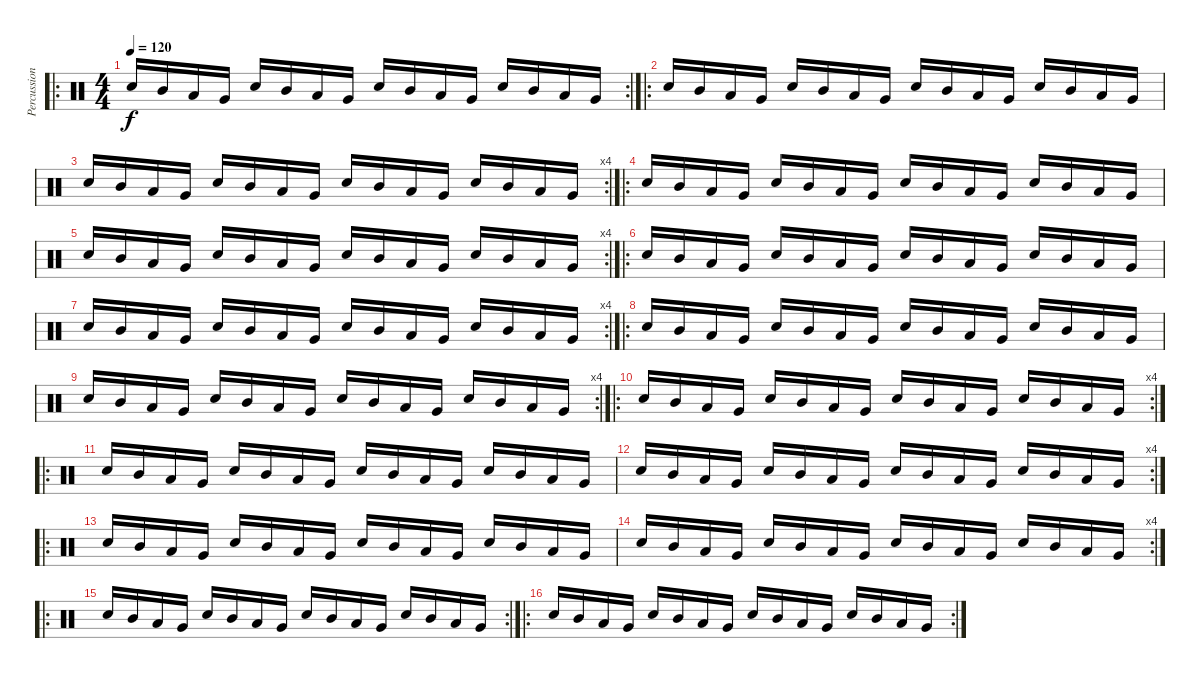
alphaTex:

\track ("Percussion" "Percussion") {instrument percussion}
\staff {score}
\articulation defaults
\ro
\rc 2
\ts (4 4)
\tempo 120
\tempo 130
\tempo 120
\clef neutral
\ks c "Snare (hit)"{x}.16{dy f volume 8} "Mid Tom (hit)".16 "Low Tom (hit)".16 "Very Low Tom (hit)".16 "Snare (hit)"{x}.16 "Mid Tom (hit)".16 "Low Tom (hit)".16 "Very Low Tom (hit)".16 "Snare (hit)"{x}.16 "Mid Tom (hit)".16 "Low Tom (hit)".16 "Very Low Tom (hit)".16 "Snare (hit)"{x}.16 "Mid Tom (hit)".16 "Low Tom (hit)".16 "Very Low Tom (hit)".16
|
\ro "Snare (hit) 2".16{volume 13} "Mid Tom (hit)".16 "Low Tom (hit)".16 "Very Low Tom (hit)".16 "Snare (hit) 2".16 "Mid Tom (hit)".16 "Low Tom (hit)".16 "Very Low Tom (hit)".16 "Snare (hit) 2".16 "Mid Tom (hit)".16 "Low Tom (hit)".16 "Very Low Tom (hit)".16 "Snare (hit) 2".16 "Mid Tom (hit)".16 "Low Tom (hit)".16 "Very Low Tom (hit)".16
|
\rc 4 "Snare (hit) 2".16 "Mid Tom (hit)".16 "Low Tom (hit)".16 "Very Low Tom (hit)".16 "Snare (hit) 2".16 "Mid Tom (hit)".16 "Low Tom (hit)".16 "Very Low Tom (hit)".16 "Snare (hit) 2".16 "Mid Tom (hit)".16 "Low Tom (hit)".16 "Very Low Tom (hit)".16 "Snare (hit) 2".16 "Mid Tom (hit)".16 "Low Tom (hit)".16 "Very Low Tom (hit)".16
|
\ro "Snare (hit)"{x}.16{volume 8} "Mid Tom (hit)".16 "Low Tom (hit)".16 "Very Low Tom (hit)".16 "Snare (hit)"{x}.16 "Mid Tom (hit)".16 "Low Tom (hit)".16 "Very Low Tom (hit)".16 "Snare (hit)"{x}.16 "Mid Tom (hit)".16 "Low Tom (hit)".16 "Very Low Tom (hit)".16 "Snare (hit)"{x}.16 "Mid Tom (hit)".16 "Low Tom (hit)".16 "Very Low Tom (hit)".16
|
\rc 4 "Snare (hit)"{x}.16 "Mid Tom (hit)".16 "Low Tom (hit)".16 "Very Low Tom (hit)".16 "Snare (hit)"{x}.16 "Mid Tom (hit)".16 "Low Tom (hit)".16 "Very Low Tom (hit)".16 "Snare (hit)"{x}.16 "Mid Tom (hit)".16 "Low Tom (hit)".16 "Very Low Tom (hit)".16 "Snare (hit)"{x}.16 "Mid Tom (hit)".16 "Low Tom (hit)".16 "Very Low Tom (hit)".16
|
\ro "Snare (hit) 2".16{volume 13} "Mid Tom (hit)".16 "Low Tom (hit)".16 "Very Low Tom (hit)".16 "Snare (hit) 2".16 "Mid Tom (hit)".16 "Low Tom (hit)".16 "Very Low Tom (hit)".16 "Snare (hit) 2".16 "Mid Tom (hit)".16 "Low Tom (hit)".16 "Very Low Tom (hit)".16 "Snare (hit) 2".16 "Mid Tom (hit)".16 "Low Tom (hit)".16 "Very Low Tom (hit)".16
|
\rc 4 "Snare (hit) 2".16 "Mid Tom (hit)".16 "Low Tom (hit)".16 "Very Low Tom (hit)".16 "Snare (hit) 2".16 "Mid Tom (hit)".16 "Low Tom (hit)".16 "Very Low Tom (hit)".16 "Snare (hit) 2".16 "Mid Tom (hit)".16 "Low Tom (hit)".16 "Very Low Tom (hit)".16 "Snare (hit) 2".16 "Mid Tom (hit)".16 "Low Tom (hit)".16 "Very Low Tom (hit)".16
|
\ro "Snare (hit)"{x}.16{volume 8} "Mid Tom (hit)".16 "Low Tom (hit)".16 "Very Low Tom (hit)".16 "Snare (hit)"{x}.16 "Mid Tom (hit)".16 "Low Tom (hit)".16 "Very Low Tom (hit)".16 "Snare (hit)"{x}.16 "Mid Tom (hit)".16 "Low Tom (hit)".16 "Very Low Tom (hit)".16 "Snare (hit)"{x}.16 "Mid Tom (hit)".16 "Low Tom (hit)".16 "Very Low Tom (hit)".16
|
\rc 4 "Snare (hit)"{x}.16{volume 8} "Mid Tom (hit)".16 "Low Tom (hit)".16 "Very Low Tom (hit)".16 "Snare (hit)"{x}.16 "Mid Tom (hit)".16 "Low Tom (hit)".16 "Very Low Tom (hit)".16 "Snare (hit)"{x}.16 "Mid Tom (hit)".16 "Low Tom (hit)".16 "Very Low Tom (hit)".16 "Snare (hit)"{x}.16 "Mid Tom (hit)".16 "Low Tom (hit)".16 "Very Low Tom (hit)".16
|
\ro
\rc 4 "Snare (hit)"{x}.16 "Mid Tom (hit)".16 "Low Tom (hit)".16 "Very Low Tom (hit)".16 "Snare (hit)"{x}.16 "Mid Tom (hit)".16 "Low Tom (hit)".16 "Very Low Tom (hit)".16 "Snare (hit)"{x}.16 "Mid Tom (hit)".16 "Low Tom (hit)".16 "Very Low Tom (hit)".16 "Snare (hit)"{x}.16 "Mid Tom (hit)".16 "Low Tom (hit)".16 "Very Low Tom (hit)".16
|
\ro "Snare (hit) 2".16{volume 13} "Mid Tom (hit)".16 "Low Tom (hit)".16 "Very Low Tom (hit)".16 "Snare (hit) 2".16 "Mid Tom (hit)".16 "Low Tom (hit)".16 "Very Low Tom (hit)".16 "Snare (hit) 2".16 "Mid Tom (hit)".16 "Low Tom (hit)".16 "Very Low Tom (hit)".16 "Snare (hit) 2".16 "Mid Tom (hit)".16 "Low Tom (hit)".16 "Very Low Tom (hit)".16
|
\rc 4 "Snare (hit) 2".16 "Mid Tom (hit)".16 "Low Tom (hit)".16 "Very Low Tom (hit)".16 "Snare (hit) 2".16 "Mid Tom (hit)".16 "Low Tom (hit)".16 "Very Low Tom (hit)".16 "Snare (hit) 2".16 "Mid Tom (hit)".16 "Low Tom (hit)".16 "Very Low Tom (hit)".16 "Snare (hit) 2".16 "Mid Tom (hit)".16 "Low Tom (hit)".16 "Very Low Tom (hit)".16
|
\ro "Snare (hit)"{x}.16{volume 8} "Mid Tom (hit)".16 "Low Tom (hit)".16 "Very Low Tom (hit)".16 "Snare (hit)"{x}.16 "Mid Tom (hit)".16 "Low Tom (hit)".16 "Very Low Tom (hit)".16 "Snare (hit)"{x}.16 "Mid Tom (hit)".16 "Low Tom (hit)".16 "Very Low Tom (hit)".16 "Snare (hit)"{x}.16 "Mid Tom (hit)".16 "Low Tom (hit)".16 "Very Low Tom (hit)".16
|
\rc 4 "Snare (hit)"{x}.16{volume 8} "Mid Tom (hit)".16 "Low Tom (hit)".16 "Very Low Tom (hit)".16 "Snare (hit)"{x}.16 "Mid Tom (hit)".16 "Low Tom (hit)".16 "Very Low Tom (hit)".16 "Snare (hit)"{x}.16 "Mid Tom (hit)".16 "Low Tom (hit)".16 "Very Low Tom (hit)".16 "Snare (hit)"{x}.16 "Mid Tom (hit)".16 "Low Tom (hit)".16 "Very Low Tom (hit)".16
|
\ro
\rc 2 "Snare (hit)"{x}.16 "Mid Tom (hit)".16 "Low Tom (hit)".16 "Very Low Tom (hit)".16 "Snare (hit)"{x}.16 "Mid Tom (hit)".16 "Low Tom (hit)".16 "Very Low Tom (hit)".16 "Snare (hit)"{x}.16 "Mid Tom (hit)".16 "Low Tom (hit)".16 "Very Low Tom (hit)".16 "Snare (hit)"{x}.16 "Mid Tom (hit)".16 "Low Tom (hit)".16 "Very Low Tom (hit)".16
|
\ro
\rc 2 "Snare (hit)"{x}.16 "Mid Tom (hit)".16 "Low Tom (hit)".16 "Very Low Tom (hit)".16 "Snare (hit)"{x}.16 "Mid Tom (hit)".16 "Low Tom (hit)".16 "Very Low Tom (hit)".16 "Snare (hit)"{x}.16 "Mid Tom (hit)".16 "Low Tom (hit)".16 "Very Low Tom (hit)".16 "Snare (hit)"{x}.16 "Mid Tom (hit)".16 "Low Tom (hit)".16 "Very Low Tom (hit)".16
